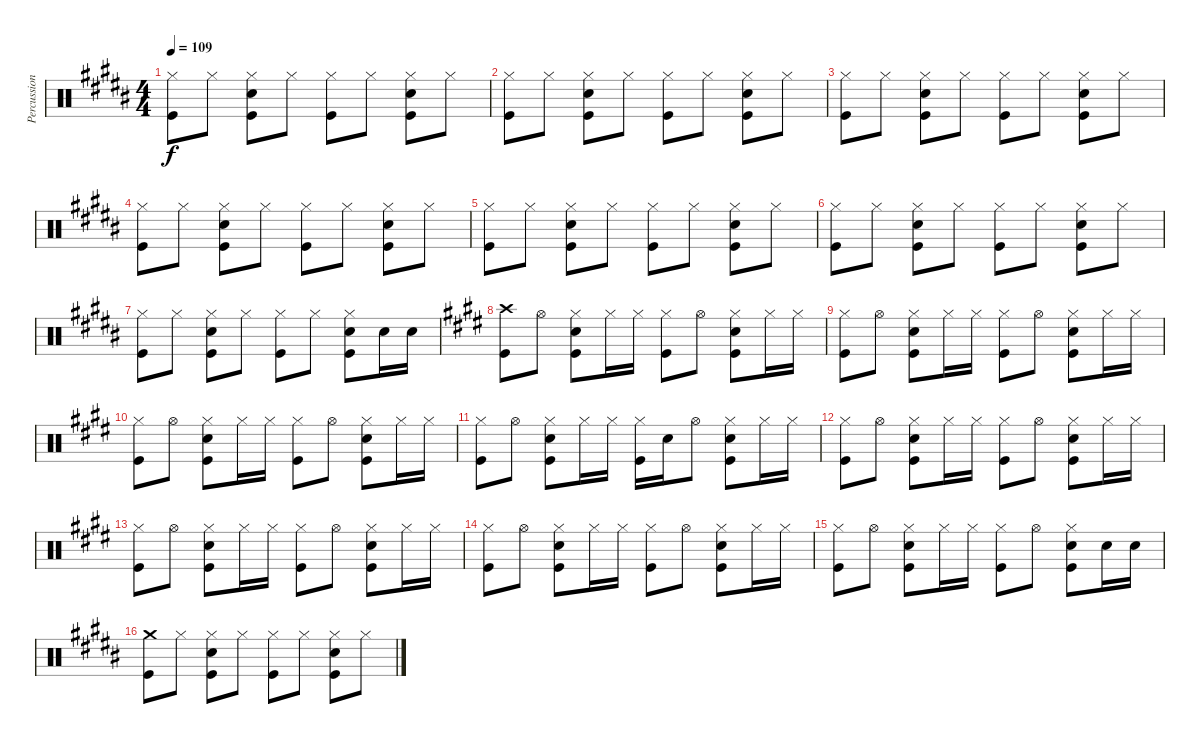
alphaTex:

\track ("Percussion" "Percussion") {instrument percussion}
\staff {score}
\articulation defaults
\ts (4 4)
\tempo 109
\clef neutral
\ks b
("Hi-Hat (closed)" "Kick (hit)").8{dy f} "Hi-Hat (closed)".8 ("Hi-Hat (closed)" "Snare (hit) 2" "Kick (hit)").8 "Hi-Hat (closed)".8 ("Hi-Hat (closed)" "Kick (hit)").8 "Hi-Hat (closed)".8 ("Hi-Hat (closed)" "Snare (hit) 2" "Kick (hit)").8 "Hi-Hat (closed)".8 |
("Hi-Hat (closed)" "Kick (hit)").8 "Hi-Hat (closed)".8 ("Hi-Hat (closed)" "Snare (hit) 2" "Kick (hit)").8 "Hi-Hat (closed)".8 ("Hi-Hat (closed)" "Kick (hit)").8 "Hi-Hat (closed)".8 ("Hi-Hat (closed)" "Snare (hit) 2" "Kick (hit)").8 "Hi-Hat (closed)".8 |
("Hi-Hat (closed)" "Kick (hit)").8 "Hi-Hat (closed)".8 ("Hi-Hat (closed)" "Snare (hit) 2" "Kick (hit)").8 "Hi-Hat (closed)".8 ("Hi-Hat (closed)" "Kick (hit)").8 "Hi-Hat (closed)".8 ("Hi-Hat (closed)" "Snare (hit) 2" "Kick (hit)").8 "Hi-Hat (closed)".8 |
("Hi-Hat (closed)" "Kick (hit)").8 "Hi-Hat (closed)".8 ("Hi-Hat (closed)" "Snare (hit) 2" "Kick (hit)").8 "Hi-Hat (closed)".8 ("Hi-Hat (closed)" "Kick (hit)").8 "Hi-Hat (closed)".8 ("Hi-Hat (closed)" "Snare (hit) 2" "Kick (hit)").8 "Hi-Hat (closed)".8 |
("Hi-Hat (closed)" "Kick (hit)").8 "Hi-Hat (closed)".8 ("Hi-Hat (closed)" "Snare (hit) 2" "Kick (hit)").8 "Hi-Hat (closed)".8 ("Hi-Hat (closed)" "Kick (hit)").8 "Hi-Hat (closed)".8 ("Hi-Hat (closed)" "Snare (hit) 2" "Kick (hit)").8 "Hi-Hat (closed)".8 |
("Hi-Hat (closed)" "Kick (hit)").8 "Hi-Hat (closed)".8 ("Hi-Hat (closed)" "Snare (hit) 2" "Kick (hit)").8 "Hi-Hat (closed)".8 ("Hi-Hat (closed)" "Kick (hit)").8 "Hi-Hat (closed)".8 ("Hi-Hat (closed)" "Snare (hit) 2" "Kick (hit)").8 "Hi-Hat (closed)".8 |
("Hi-Hat (closed)" "Kick (hit)").8 "Hi-Hat (closed)".8 ("Hi-Hat (closed)" "Snare (hit) 2" "Kick (hit)").8 "Hi-Hat (closed)".8 ("Hi-Hat (closed)" "Kick (hit)").8 "Hi-Hat (closed)".8 ("Hi-Hat (closed)" "Snare (hit) 2" "Kick (hit)").8 "Snare (hit) 2".16 "Snare (hit) 2".16 |
\ks e
("Crash high (hit)" "Kick (hit)").8 "Hi-Hat (open)".8 ("Hi-Hat (closed)" "Snare (hit) 2" "Kick (hit)").8 "Hi-Hat (closed)".16 "Hi-Hat (closed)".16 ("Hi-Hat (closed)" "Kick (hit)").8 "Hi-Hat (open)".8 ("Hi-Hat (closed)" "Snare (hit) 2" "Kick (hit)").8 "Hi-Hat (closed)".16 "Hi-Hat (closed)".16 |
("Hi-Hat (closed)" "Kick (hit)").8 "Hi-Hat (open)".8 ("Hi-Hat (closed)" "Snare (hit) 2" "Kick (hit)").8 "Hi-Hat (closed)".16 "Hi-Hat (closed)".16 ("Hi-Hat (closed)" "Kick (hit)").8 "Hi-Hat (open)".8 ("Hi-Hat (closed)" "Snare (hit) 2" "Kick (hit)").8 "Hi-Hat (closed)".16 "Hi-Hat (closed)".16 |
("Hi-Hat (closed)" "Kick (hit)").8 "Hi-Hat (open)".8 ("Hi-Hat (closed)" "Snare (hit) 2" "Kick (hit)").8 "Hi-Hat (closed)".16 "Hi-Hat (closed)".16 ("Hi-Hat (closed)" "Kick (hit)").8 "Hi-Hat (open)".8 ("Hi-Hat (closed)" "Snare (hit) 2" "Kick (hit)").8 "Hi-Hat (closed)".16 "Hi-Hat (closed)".16 |
("Hi-Hat (closed)" "Kick (hit)").8 "Hi-Hat (open)".8 ("Hi-Hat (closed)" "Snare (hit) 2" "Kick (hit)").8 "Hi-Hat (closed)".16 "Hi-Hat (closed)".16 ("Hi-Hat (closed)" "Kick (hit)").16 "Snare (hit) 2".16 "Hi-Hat (open)".8 ("Hi-Hat (closed)" "Snare (hit) 2" "Kick (hit)").8 "Hi-Hat (closed)".16 "Hi-Hat (closed)".16 |
("Hi-Hat (closed)" "Kick (hit)").8 "Hi-Hat (open)".8 ("Hi-Hat (closed)" "Snare (hit) 2" "Kick (hit)").8 "Hi-Hat (closed)".16 "Hi-Hat (closed)".16 ("Hi-Hat (closed)" "Kick (hit)").8 "Hi-Hat (open)".8 ("Hi-Hat (closed)" "Snare (hit) 2" "Kick (hit)").8 "Hi-Hat (closed)".16 "Hi-Hat (closed)".16 |
("Hi-Hat (closed)" "Kick (hit)").8 "Hi-Hat (open)".8 ("Hi-Hat (closed)" "Snare (hit) 2" "Kick (hit)").8 "Hi-Hat (closed)".16 "Hi-Hat (closed)".16 ("Hi-Hat (closed)" "Kick (hit)").8 "Hi-Hat (open)".8 ("Hi-Hat (closed)" "Snare (hit) 2" "Kick (hit)").8 "Hi-Hat (closed)".16 "Hi-Hat (closed)".16 |
("Hi-Hat (closed)" "Kick (hit)").8 "Hi-Hat (open)".8 ("Hi-Hat (closed)" "Snare (hit) 2" "Kick (hit)").8 "Hi-Hat (closed)".16 "Hi-Hat (closed)".16 ("Hi-Hat (closed)" "Kick (hit)").8 "Hi-Hat (open)".8 ("Hi-Hat (closed)" "Snare (hit) 2" "Kick (hit)").8 "Hi-Hat (closed)".16 "Hi-Hat (closed)".16 |
("Hi-Hat (closed)" "Kick (hit)").8 "Hi-Hat (open)".8 ("Hi-Hat (closed)" "Snare (hit) 2" "Kick (hit)").8 "Hi-Hat (closed)".16 "Hi-Hat (closed)".16 ("Hi-Hat (closed)" "Kick (hit)").8 "Hi-Hat (open)".8 ("Hi-Hat (closed)" "Snare (hit) 2" "Kick (hit)").8 "Snare (hit) 2".16 "Snare (hit) 2".16 |
\ks b
("Crash medium (hit)" "Kick (hit)").8 "Hi-Hat (closed)".8 ("Hi-Hat (closed)" "Snare (hit) 2" "Kick (hit)").8 "Hi-Hat (closed)".8 ("Hi-Hat (closed)" "Kick (hit)").8 "Hi-Hat (closed)".8 ("Hi-Hat (closed)" "Snare (hit) 2" "Kick (hit)").8 "Hi-Hat (closed)".8
